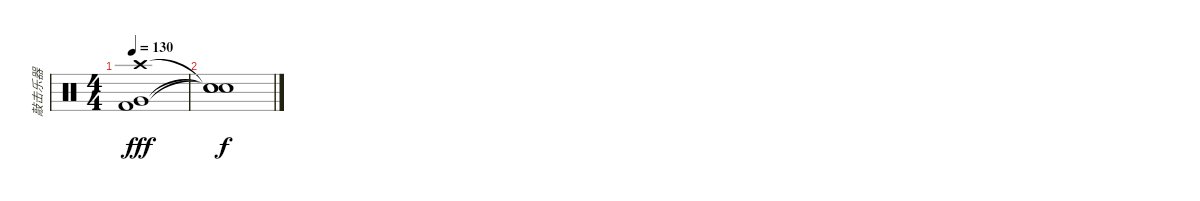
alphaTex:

\track ("敲击乐器" "敲击乐器") {instrument percussion}
\staff {score}
\articulation defaults
\ts (4 4)
\tempo 130
\clef neutral
\ks c
("Very Low Tom (hit)" "Kick (hit) 2" "Crash high (hit)").1{dy fff} |
("Snare (hit)"{t} "Snare (hit)"{t} "Snare (hit)"{t}).1{dy f}
